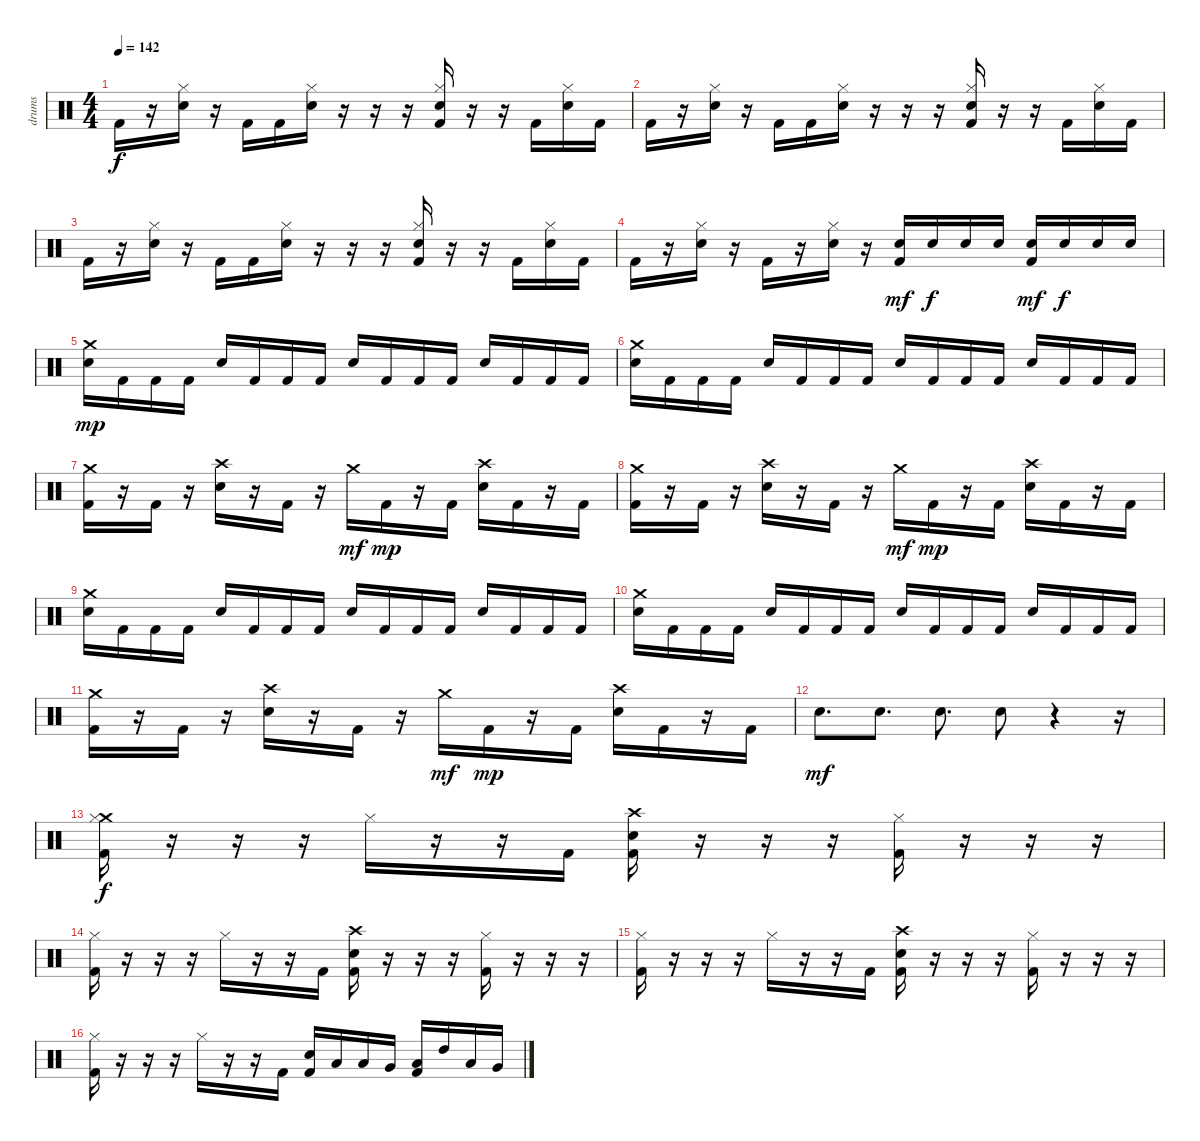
\track ("drums" "drums") {instrument percussion}
\staff {score}
\articulation defaults
\ts (4 4)
\tempo 142
\clef neutral
\ks c "Kick (hit) 2".16{dy f}
r.16 ("Hi-Hat (closed)" "Electric Snare (hit)").16 r.16 "Kick (hit) 2".16 "Kick (hit) 2".16 ("Hi-Hat (closed)" "Electric Snare (hit)").16 r.16 r.16 r.16 ("Hi-Hat (closed)" "Electric Snare (hit)" "Kick (hit) 2").16 r.16 r.16 "Kick (hit) 2".16 ("Hi-Hat (closed)" "Electric Snare (hit)").16 "Kick (hit) 2".16 |
"Kick (hit) 2".16 r.16 ("Hi-Hat (closed)" "Electric Snare (hit)").16 r.16 "Kick (hit) 2".16 "Kick (hit) 2".16 ("Hi-Hat (closed)" "Electric Snare (hit)").16 r.16 r.16 r.16 ("Hi-Hat (closed)" "Electric Snare (hit)" "Kick (hit) 2").16 r.16 r.16 "Kick (hit) 2".16 ("Hi-Hat (closed)" "Electric Snare (hit)").16 "Kick (hit) 2".16 |
"Kick (hit) 2".16 r.16 ("Hi-Hat (closed)" "Electric Snare (hit)").16 r.16 "Kick (hit) 2".16 "Kick (hit) 2".16 ("Hi-Hat (closed)" "Electric Snare (hit)").16 r.16 r.16 r.16 ("Hi-Hat (closed)" "Electric Snare (hit)" "Kick (hit) 2").16 r.16 r.16 "Kick (hit) 2".16 ("Hi-Hat (closed)" "Electric Snare (hit)").16 "Kick (hit) 2".16 |
"Kick (hit) 2".16 r.16 ("Hi-Hat (closed)" "Electric Snare (hit)").16 r.16 "Kick (hit) 2".16 r.16 ("Hi-Hat (closed)" "Electric Snare (hit)").16 r.16 ("Electric Snare (hit)" "Kick (hit) 2").16{dy mf} "Electric Snare (hit)".16{dy f} "Electric Snare (hit)".16 "Electric Snare (hit)".16 ("Electric Snare (hit)" "Kick (hit) 2").16{dy mf} "Electric Snare (hit)".16{dy f} "Electric Snare (hit)".16 "Electric Snare (hit)".16 |
("Crash medium (hit)" "Snare (hit) 2").16{dy mp} "Kick (hit) 2".16 "Kick (hit) 2".16 "Kick (hit) 2".16 "Snare (hit) 2".16 "Kick (hit) 2".16 "Kick (hit) 2".16 "Kick (hit) 2".16 "Snare (hit) 2".16 "Kick (hit) 2".16 "Kick (hit) 2".16 "Kick (hit) 2".16 "Snare (hit) 2".16 "Kick (hit) 2".16 "Kick (hit) 2".16 "Kick (hit) 2".16 |
("Crash medium (hit)" "Snare (hit) 2").16 "Kick (hit) 2".16 "Kick (hit) 2".16 "Kick (hit) 2".16 "Snare (hit) 2".16 "Kick (hit) 2".16 "Kick (hit) 2".16 "Kick (hit) 2".16 "Snare (hit) 2".16 "Kick (hit) 2".16 "Kick (hit) 2".16 "Kick (hit) 2".16 "Snare (hit) 2".16 "Kick (hit) 2".16 "Kick (hit) 2".16 "Kick (hit) 2".16 |
("Crash medium (hit)" "Kick (hit) 2").16 r.16 "Kick (hit) 2".16 r.16 ("Crash high (hit)" "Snare (hit) 2").16 r.16 "Kick (hit) 2".16 r.16 "Crash medium (hit)".16{dy mf} "Kick (hit) 2".16{dy mp} r.16 "Kick (hit) 2".16 ("Crash high (hit)" "Snare (hit) 2").16 "Kick (hit) 2".16 r.16 "Kick (hit) 2".16 |
("Crash medium (hit)" "Kick (hit) 2").16 r.16 "Kick (hit) 2".16 r.16 ("Crash high (hit)" "Snare (hit) 2").16 r.16 "Kick (hit) 2".16 r.16 "Crash medium (hit)".16{dy mf} "Kick (hit) 2".16{dy mp} r.16 "Kick (hit) 2".16 ("Crash high (hit)" "Snare (hit) 2").16 "Kick (hit) 2".16 r.16 "Kick (hit) 2".16 |
("Crash medium (hit)" "Snare (hit) 2").16 "Kick (hit) 2".16 "Kick (hit) 2".16 "Kick (hit) 2".16 "Snare (hit) 2".16 "Kick (hit) 2".16 "Kick (hit) 2".16 "Kick (hit) 2".16 "Snare (hit) 2".16 "Kick (hit) 2".16 "Kick (hit) 2".16 "Kick (hit) 2".16 "Snare (hit) 2".16 "Kick (hit) 2".16 "Kick (hit) 2".16 "Kick (hit) 2".16 |
("Crash medium (hit)" "Snare (hit) 2").16 "Kick (hit) 2".16 "Kick (hit) 2".16 "Kick (hit) 2".16 "Snare (hit) 2".16 "Kick (hit) 2".16 "Kick (hit) 2".16 "Kick (hit) 2".16 "Snare (hit) 2".16 "Kick (hit) 2".16 "Kick (hit) 2".16 "Kick (hit) 2".16 "Snare (hit) 2".16 "Kick (hit) 2".16 "Kick (hit) 2".16 "Kick (hit) 2".16 |
("Crash medium (hit)" "Kick (hit) 2").16 r.16 "Kick (hit) 2".16 r.16 ("Crash high (hit)" "Snare (hit) 2").16 r.16 "Kick (hit) 2".16 r.16 "Crash medium (hit)".16{dy mf} "Kick (hit) 2".16{dy mp} r.16 "Kick (hit) 2".16 ("Crash high (hit)" "Snare (hit) 2").16 "Kick (hit) 2".16 r.16 "Kick (hit) 2".16 |
"Snare (hit) 2".8{d dy mf} "Snare (hit) 2".8{d} "Snare (hit) 2".8{d} "Snare (hit) 2".8 r.4 r.16 |
("Crash medium (hit)" "Hi-Hat (closed)" "Kick (hit) 2").16{dy f} r.16 r.16 r.16 "Hi-Hat (closed)".16 r.16 r.16 "Kick (hit) 2".16 ("Crash high (hit)" "Electric Snare (hit)" "Kick (hit) 2").16 r.16 r.16 r.16 ("Hi-Hat (closed)" "Kick (hit) 2").16 r.16 r.16 r.16 |
("Hi-Hat (closed)" "Kick (hit) 2").16 r.16 r.16 r.16 "Hi-Hat (closed)".16 r.16 r.16 "Kick (hit) 2".16 ("Crash high (hit)" "Electric Snare (hit)" "Kick (hit) 2").16 r.16 r.16 r.16 ("Hi-Hat (closed)" "Kick (hit) 2").16 r.16 r.16 r.16 |
("Hi-Hat (closed)" "Kick (hit) 2").16 r.16 r.16 r.16 "Hi-Hat (closed)".16 r.16 r.16 "Kick (hit) 2".16 ("Crash high (hit)" "Electric Snare (hit)" "Kick (hit) 2").16 r.16 r.16 r.16 ("Hi-Hat (closed)" "Kick (hit) 2").16 r.16 r.16 r.16 |
("Hi-Hat (closed)" "Kick (hit) 2").16 r.16 r.16 r.16 "Hi-Hat (closed)".16 r.16 r.16 "Kick (hit) 2".16 ("Electric Snare (hit)" "Kick (hit) 2").16 "Low Floor Tom (hit)".16 "Low Floor Tom (hit)".16 "Very Low Tom (hit)".16 ("Low Tom (hit)" "Kick (hit) 2").16 "High Tom (hit)".16 "Low Tom (hit)".16 "Very Low Tom (hit)".16
